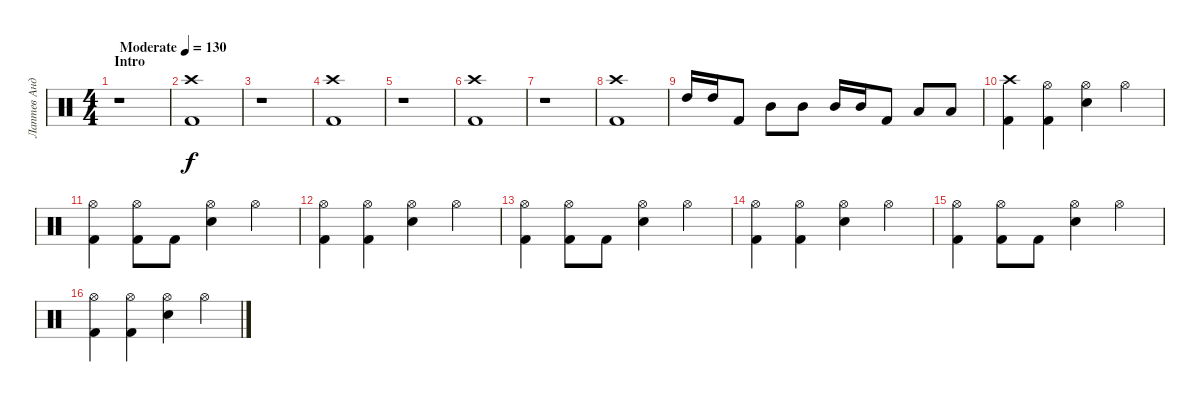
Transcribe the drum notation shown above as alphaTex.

\track ("Лаптев Андрей" "Лаптев Анд") {instrument percussion}
\staff {score}
\articulation defaults
\ts (4 4)
\section ("" "Intro")
\tempo (130 "Moderate")
\clef neutral
\ks c
r.1{dy f} |
("Crash high (hit)" "Kick (hit) 2").1 |
r.1 |
("Crash high (hit)" "Kick (hit) 2").1 |
r.1 |
("Crash high (hit)" "Kick (hit) 2").1 |
r.1 |
("Crash high (hit)" "Kick (hit) 2").1 |
"High Tom (hit)".16 "High Tom (hit)".16 "Kick (hit) 2".8 "Mid Tom (hit)".8 "Mid Tom (hit)".8 "Mid Tom (hit)".16 "Mid Tom (hit)".16 "Kick (hit) 2".8 "Low Tom (hit)".8 "Low Tom (hit)".8 |
("Crash high (hit)" "Kick (hit) 2").4 ("Hi-Hat (open)" "Kick (hit) 2").4 ("Electric Snare (hit)" "Hi-Hat (open)").4 "Hi-Hat (open)".4 |
("Hi-Hat (open)" "Kick (hit) 2").4 ("Hi-Hat (open)" "Kick (hit) 2").8 "Kick (hit) 2".8 ("Electric Snare (hit)" "Hi-Hat (open)").4 "Hi-Hat (open)".4 |
("Hi-Hat (open)" "Kick (hit) 2").4 ("Hi-Hat (open)" "Kick (hit) 2").4 ("Electric Snare (hit)" "Hi-Hat (open)").4 "Hi-Hat (open)".4 |
("Hi-Hat (open)" "Kick (hit) 2").4 ("Hi-Hat (open)" "Kick (hit) 2").8 "Kick (hit) 2".8 ("Hi-Hat (open)" "Electric Snare (hit)").4 "Hi-Hat (open)".4 |
("Hi-Hat (open)" "Kick (hit) 2").4 ("Hi-Hat (open)" "Kick (hit) 2").4 ("Electric Snare (hit)" "Hi-Hat (open)").4 "Hi-Hat (open)".4 |
("Hi-Hat (open)" "Kick (hit) 2").4 ("Hi-Hat (open)" "Kick (hit) 2").8 "Kick (hit) 2".8 ("Electric Snare (hit)" "Hi-Hat (open)").4 "Hi-Hat (open)".4 |
("Hi-Hat (open)" "Kick (hit) 2").4 ("Hi-Hat (open)" "Kick (hit) 2").4 ("Electric Snare (hit)" "Hi-Hat (open)").4 "Hi-Hat (open)".4
